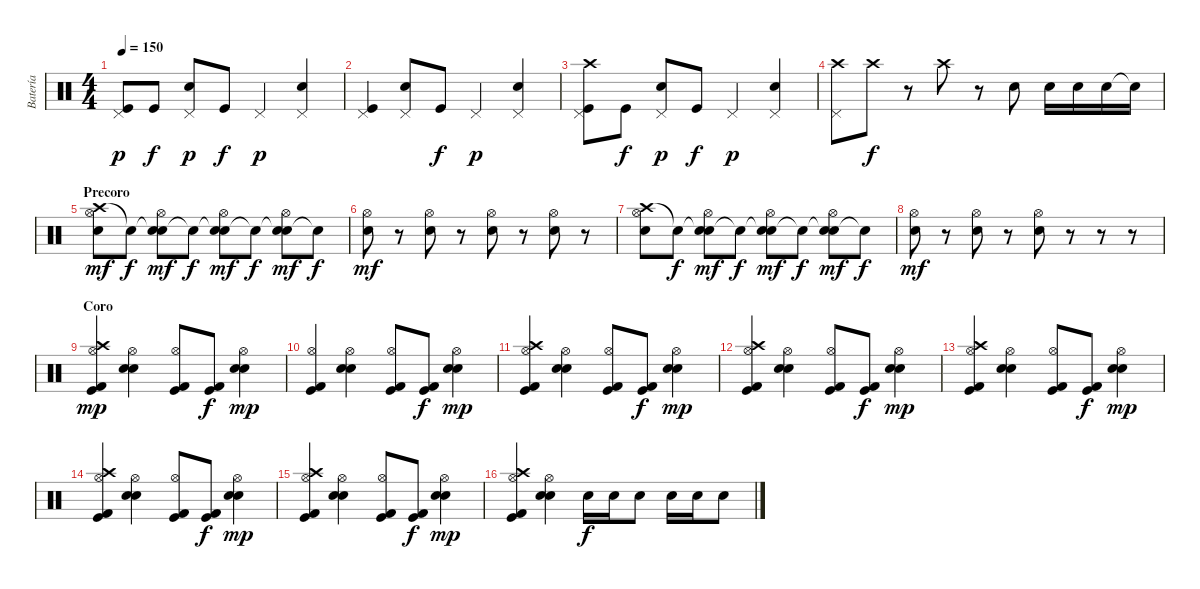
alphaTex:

\track ("Batería" "Batería") {instrument percussion}
\staff {score}
\articulation defaults
\ts (4 4)
\tempo 150
\clef neutral
\ks c
("Kick (hit)" "Pedal Hi-Hat (hit)").8{dy p} "Kick (hit)".8{dy f} ("Electric Snare (hit)" "Pedal Hi-Hat (hit)").8{dy p} "Kick (hit)".8{dy f} "Pedal Hi-Hat (hit)".4{dy p} ("Electric Snare (hit)" "Pedal Hi-Hat (hit)").4 |
("Kick (hit)" "Pedal Hi-Hat (hit)").4 ("Snare (hit) 2" "Pedal Hi-Hat (hit)").8 "Kick (hit)".8{dy f} "Pedal Hi-Hat (hit)".4{dy p} ("Electric Snare (hit)" "Pedal Hi-Hat (hit)").4 |
("Kick (hit)" "Crash high (hit)" "Pedal Hi-Hat (hit)").8 "Kick (hit)".8{dy f} ("Electric Snare (hit)" "Pedal Hi-Hat (hit)").8{dy p} "Kick (hit)".8{dy f} "Pedal Hi-Hat (hit)".4{dy p} ("Electric Snare (hit)" "Pedal Hi-Hat (hit)").4 |
("Crash high (hit)" "Pedal Hi-Hat (hit)").8 "Crash high (hit)".8{dy f} r.8 "Crash high (hit)".8 r.8 "Electric Snare (hit)".8 "Electric Snare (hit)".16 "Electric Snare (hit)".16 "Electric Snare (hit)".16 "Electric Snare (hit)"{t}.16 |
\section ("" "Precoro")
("Crash high (hit)" "Hi-Hat (open)" "Electric Snare (hit)").8{dy mf} "Snare (hit)"{t}.8{dy f} ("Snare (hit)"{t} "Hi-Hat (open)" "Electric Snare (hit)").8{dy mf} "Snare (hit)"{t}.8{dy f} ("Snare (hit)"{t} "Hi-Hat (open)" "Electric Snare (hit)").8{dy mf} "Snare (hit)"{t}.8{dy f} ("Snare (hit)"{t} "Hi-Hat (open)" "Electric Snare (hit)").8{dy mf} "Snare (hit)"{t}.8{dy f} |
("Hi-Hat (open)" "Electric Snare (hit)").8{dy mf} r.8 ("Hi-Hat (open)" "Electric Snare (hit)").8 r.8 ("Hi-Hat (open)" "Electric Snare (hit)").8 r.8 ("Hi-Hat (open)" "Electric Snare (hit)").8 r.8 |
("Crash high (hit)" "Hi-Hat (open)" "Electric Snare (hit)").8 "Snare (hit)"{t}.8{dy f} ("Snare (hit)"{t} "Hi-Hat (open)" "Electric Snare (hit)").8{dy mf} "Snare (hit)"{t}.8{dy f} ("Snare (hit)"{t} "Hi-Hat (open)" "Electric Snare (hit)").8{dy mf} "Snare (hit)"{t}.8{dy f} ("Snare (hit)"{t} "Hi-Hat (open)" "Electric Snare (hit)").8{dy mf} "Snare (hit)"{t}.8{dy f} |
("Hi-Hat (open)" "Electric Snare (hit)").8{dy mf} r.8 ("Hi-Hat (open)" "Electric Snare (hit)").8 r.8 ("Hi-Hat (open)" "Electric Snare (hit)").8 r.8 r.8 r.8 |
\section ("" "Coro")
("Crash high (hit)" "Hi-Hat (open)" "Kick (hit)" "Kick (hit) 2").4{dy mp} ("Hi-Hat (open)" "Snare (hit) 2" "Electric Snare (hit)").4 ("Hi-Hat (open)" "Kick (hit)" "Kick (hit) 2").8 ("Kick (hit) 2" "Kick (hit)").8{dy f} ("Hi-Hat (open)" "Snare (hit) 2" "Electric Snare (hit)").4{dy mp} |
("Hi-Hat (open)" "Kick (hit)" "Kick (hit) 2").4 ("Hi-Hat (open)" "Snare (hit) 2" "Electric Snare (hit)").4 ("Hi-Hat (open)" "Kick (hit)" "Kick (hit) 2").8 ("Kick (hit) 2" "Kick (hit)").8{dy f} ("Hi-Hat (open)" "Snare (hit) 2" "Electric Snare (hit)").4{dy mp} |
("Crash high (hit)" "Hi-Hat (open)" "Kick (hit)" "Kick (hit) 2").4 ("Hi-Hat (open)" "Snare (hit) 2" "Electric Snare (hit)").4 ("Hi-Hat (open)" "Kick (hit)" "Kick (hit) 2").8 ("Kick (hit) 2" "Kick (hit)").8{dy f} ("Hi-Hat (open)" "Snare (hit) 2" "Electric Snare (hit)").4{dy mp} |
("Crash high (hit)" "Hi-Hat (open)" "Kick (hit)" "Kick (hit) 2").4 ("Hi-Hat (open)" "Snare (hit) 2" "Electric Snare (hit)").4 ("Hi-Hat (open)" "Kick (hit)" "Kick (hit) 2").8 ("Kick (hit) 2" "Kick (hit)").8{dy f} ("Hi-Hat (open)" "Snare (hit) 2" "Electric Snare (hit)").4{dy mp} |
("Crash high (hit)" "Hi-Hat (open)" "Kick (hit)" "Kick (hit) 2").4 ("Hi-Hat (open)" "Snare (hit) 2" "Electric Snare (hit)").4 ("Hi-Hat (open)" "Kick (hit)" "Kick (hit) 2").8 ("Kick (hit) 2" "Kick (hit)").8{dy f} ("Hi-Hat (open)" "Snare (hit) 2" "Electric Snare (hit)").4{dy mp} |
("Crash high (hit)" "Hi-Hat (open)" "Kick (hit)" "Kick (hit) 2").4 ("Hi-Hat (open)" "Snare (hit) 2" "Electric Snare (hit)").4 ("Hi-Hat (open)" "Kick (hit)" "Kick (hit) 2").8 ("Kick (hit) 2" "Kick (hit)").8{dy f} ("Hi-Hat (open)" "Snare (hit) 2" "Electric Snare (hit)").4{dy mp} |
("Crash high (hit)" "Hi-Hat (open)" "Kick (hit)" "Kick (hit) 2").4 ("Hi-Hat (open)" "Snare (hit) 2" "Electric Snare (hit)").4 ("Hi-Hat (open)" "Kick (hit)" "Kick (hit) 2").8 ("Kick (hit)" "Kick (hit) 2").8{dy f} ("Hi-Hat (open)" "Snare (hit) 2" "Electric Snare (hit)").4{dy mp} |
("Crash high (hit)" "Hi-Hat (open)" "Kick (hit)" "Kick (hit) 2").4 ("Hi-Hat (open)" "Snare (hit) 2" "Electric Snare (hit)").4 "Electric Snare (hit)".16{dy f} "Electric Snare (hit)".16 "Electric Snare (hit)".8 "Electric Snare (hit)".16 "Electric Snare (hit)".16 "Electric Snare (hit)".8
